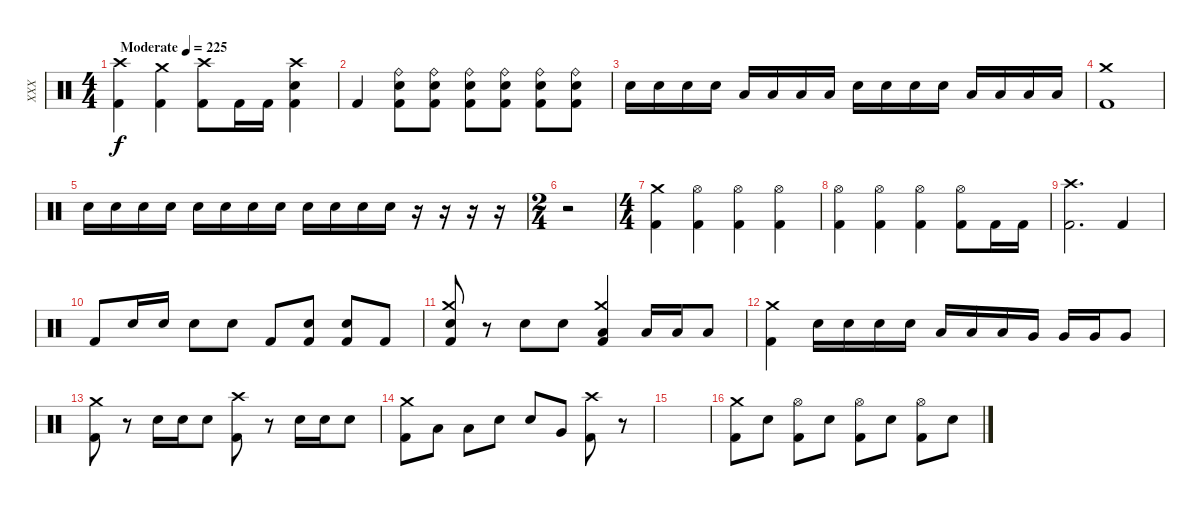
\track ("XXX" "XXX") {instrument percussion}
\staff {score}
\articulation defaults
\ts (4 4)
\tempo (225 "Moderate")
\clef neutral
\ks c
("Crash high (hit)" "Kick (hit) 2").4{dy f} ("Crash medium (hit)" "Kick (hit) 2").4 ("Crash high (hit)" "Kick (hit) 2").8 "Kick (hit) 2".16 "Kick (hit) 2".16 ("Crash high (hit)" "Electric Snare (hit)" "Kick (hit) 2").4 |
"Kick (hit) 2".4 ("Ride (bell)" "Electric Snare (hit)" "Kick (hit) 2").8 ("Ride (bell)" "Electric Snare (hit)" "Kick (hit) 2").8 ("Ride (bell)" "Electric Snare (hit)" "Kick (hit) 2").8 ("Ride (bell)" "Electric Snare (hit)" "Kick (hit) 2").8 ("Ride (bell)" "Electric Snare (hit)" "Kick (hit) 2").8 ("Ride (bell)" "Electric Snare (hit)" "Kick (hit) 2").8 |
"Electric Snare (hit)".16 "Electric Snare (hit)".16 "Electric Snare (hit)".16 "Electric Snare (hit)".16 "Low Tom (hit)".16 "Low Tom (hit)".16 "Low Tom (hit)".16 "Low Tom (hit)".16 "Electric Snare (hit)".16 "Electric Snare (hit)".16 "Electric Snare (hit)".16 "Electric Snare (hit)".16 "Low Tom (hit)".16 "Low Tom (hit)".16 "Low Tom (hit)".16 "Low Tom (hit)".16 |
("Crash medium (hit)" "Kick (hit) 2").1 |
"Electric Snare (hit)".16 "Electric Snare (hit)".16 "Electric Snare (hit)".16 "Electric Snare (hit)".16 "Electric Snare (hit)".16 "Electric Snare (hit)".16 "Electric Snare (hit)".16 "Electric Snare (hit)".16 "Electric Snare (hit)".16 "Electric Snare (hit)".16 "Electric Snare (hit)".16 "Electric Snare (hit)".16 r.16 r.16 r.16 r.16 |
\ts (2 4)
r.2 |
\ts (4 4)
("Crash medium (hit)" "Kick (hit) 2").4 ("Hi-Hat (open)" "Kick (hit) 2").4 ("Hi-Hat (open)" "Kick (hit) 2").4 ("Hi-Hat (open)" "Kick (hit) 2").4 |
("Hi-Hat (open)" "Kick (hit) 2").4 ("Hi-Hat (open)" "Kick (hit) 2").4 ("Hi-Hat (open)" "Kick (hit) 2").4 ("Hi-Hat (open)" "Kick (hit) 2").8 "Kick (hit) 2".16 "Kick (hit) 2".16 |
("Crash high (hit)" "Kick (hit) 2").2{d} "Kick (hit) 2".4 |
"Kick (hit) 2".8 "Electric Snare (hit)".16 "Electric Snare (hit)".16 "Electric Snare (hit)".8 "Electric Snare (hit)".8 "Kick (hit) 2".8 ("Electric Snare (hit)" "Kick (hit) 2").8 ("Electric Snare (hit)" "Kick (hit) 2").8 "Kick (hit) 2".8 |
("Crash medium (hit)" "Electric Snare (hit)" "Kick (hit) 2").8 r.8 "Electric Snare (hit)".8 "Electric Snare (hit)".8 ("Crash medium (hit)" "Low Tom (hit)" "Kick (hit) 2").4 "Low Tom (hit)".16 "Low Tom (hit)".16 "Low Tom (hit)".8 |
("Crash medium (hit)" "Kick (hit) 2").4 "Electric Snare (hit)".16 "Electric Snare (hit)".16 "Electric Snare (hit)".16 "Electric Snare (hit)".16 "Low Tom (hit)".16 "Low Tom (hit)".16 "Low Tom (hit)".16 "Very Low Tom (hit)".16 "Very Low Tom (hit)".16 "Very Low Tom (hit)".16 "Very Low Tom (hit)".8 |
("Crash medium (hit)" "Kick (hit) 2").8 r.8 "Electric Snare (hit)".16 "Electric Snare (hit)".16 "Electric Snare (hit)".8 ("Crash high (hit)" "Kick (hit) 2").8 r.8 "Electric Snare (hit)".16 "Electric Snare (hit)".16 "Electric Snare (hit)".8 |
("Crash medium (hit)" "Kick (hit) 2").8 "Low Tom (hit)".8 "Low Tom (hit)".8 "Electric Snare (hit)".8 "Electric Snare (hit)".8 "Very Low Tom (hit)".8 ("Crash high (hit)" "Kick (hit) 2").8 r.8 |
|
("Crash medium (hit)" "Kick (hit) 2").8 "Electric Snare (hit)".8 ("Hi-Hat (open)" "Kick (hit) 2").8 "Electric Snare (hit)".8 ("Hi-Hat (open)" "Kick (hit) 2").8 "Electric Snare (hit)".8 ("Hi-Hat (open)" "Kick (hit) 2").8 "Electric Snare (hit)".8
